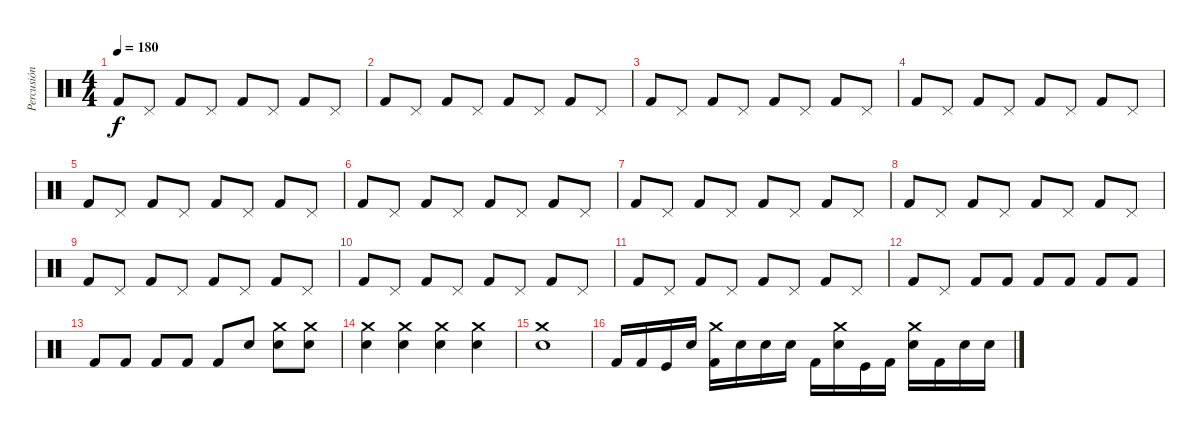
\track ("Percusión" "Percusión") {instrument percussion}
\staff {score}
\articulation defaults
\ts (4 4)
\tempo 180
\clef neutral
\ks c "Kick (hit) 2".8{dy f} "Pedal Hi-Hat (hit)".8 "Kick (hit) 2".8 "Pedal Hi-Hat (hit)".8 "Kick (hit) 2".8 "Pedal Hi-Hat (hit)".8 "Kick (hit) 2".8 "Pedal Hi-Hat (hit)".8
|
"Kick (hit) 2".8 "Pedal Hi-Hat (hit)".8 "Kick (hit) 2".8 "Pedal Hi-Hat (hit)".8 "Kick (hit) 2".8 "Pedal Hi-Hat (hit)".8 "Kick (hit) 2".8 "Pedal Hi-Hat (hit)".8 |
"Kick (hit) 2".8 "Pedal Hi-Hat (hit)".8 "Kick (hit) 2".8 "Pedal Hi-Hat (hit)".8 "Kick (hit) 2".8 "Pedal Hi-Hat (hit)".8 "Kick (hit) 2".8 "Pedal Hi-Hat (hit)".8 |
"Kick (hit) 2".8 "Pedal Hi-Hat (hit)".8 "Kick (hit) 2".8 "Pedal Hi-Hat (hit)".8 "Kick (hit) 2".8 "Pedal Hi-Hat (hit)".8 "Kick (hit) 2".8 "Pedal Hi-Hat (hit)".8 |
"Kick (hit) 2".8 "Pedal Hi-Hat (hit)".8 "Kick (hit) 2".8 "Pedal Hi-Hat (hit)".8 "Kick (hit) 2".8 "Pedal Hi-Hat (hit)".8 "Kick (hit) 2".8 "Pedal Hi-Hat (hit)".8 |
"Kick (hit) 2".8 "Pedal Hi-Hat (hit)".8 "Kick (hit) 2".8 "Pedal Hi-Hat (hit)".8 "Kick (hit) 2".8 "Pedal Hi-Hat (hit)".8 "Kick (hit) 2".8 "Pedal Hi-Hat (hit)".8 |
"Kick (hit) 2".8 "Pedal Hi-Hat (hit)".8 "Kick (hit) 2".8 "Pedal Hi-Hat (hit)".8 "Kick (hit) 2".8 "Pedal Hi-Hat (hit)".8 "Kick (hit) 2".8 "Pedal Hi-Hat (hit)".8 |
"Kick (hit) 2".8 "Pedal Hi-Hat (hit)".8 "Kick (hit) 2".8 "Pedal Hi-Hat (hit)".8 "Kick (hit) 2".8 "Pedal Hi-Hat (hit)".8 "Kick (hit) 2".8 "Pedal Hi-Hat (hit)".8 |
"Kick (hit) 2".8 "Pedal Hi-Hat (hit)".8 "Kick (hit) 2".8 "Pedal Hi-Hat (hit)".8 "Kick (hit) 2".8 "Pedal Hi-Hat (hit)".8 "Kick (hit) 2".8 "Pedal Hi-Hat (hit)".8 |
"Kick (hit) 2".8 "Pedal Hi-Hat (hit)".8 "Kick (hit) 2".8 "Pedal Hi-Hat (hit)".8 "Kick (hit) 2".8 "Pedal Hi-Hat (hit)".8 "Kick (hit) 2".8 "Pedal Hi-Hat (hit)".8 |
"Kick (hit) 2".8 "Pedal Hi-Hat (hit)".8 "Kick (hit) 2".8 "Pedal Hi-Hat (hit)".8 "Kick (hit) 2".8 "Pedal Hi-Hat (hit)".8 "Kick (hit) 2".8 "Pedal Hi-Hat (hit)".8 |
"Kick (hit) 2".8 "Pedal Hi-Hat (hit)".8 "Kick (hit) 2".8 "Kick (hit) 2".8 "Kick (hit) 2".8 "Kick (hit) 2".8 "Kick (hit) 2".8 "Kick (hit) 2".8 |
"Kick (hit) 2".8 "Kick (hit) 2".8 "Kick (hit) 2".8 "Kick (hit) 2".8 "Kick (hit) 2".8 "Snare (hit) 2".8 ("Snare (hit) 2" "Crash medium (hit)").8 ("Snare (hit) 2" "Crash medium (hit)").8 |
("Snare (hit) 2" "Crash medium (hit)").4 ("Snare (hit) 2" "Crash medium (hit)").4 ("Snare (hit) 2" "Crash medium (hit)").4 ("Snare (hit) 2" "Crash medium (hit)").4 |
("Crash medium (hit)" "Snare (hit) 2").1 |
"Kick (hit) 2".16 "Kick (hit) 2".16 "Kick (hit)".16 "Snare (hit) 2".16 ("Kick (hit) 2" "Crash medium (hit)").16 "Snare (hit) 2".16 "Snare (hit) 2".16 "Snare (hit) 2".16 "Kick (hit) 2".16 ("Snare (hit) 2" "Crash medium (hit)").16 "Kick (hit)".16 "Kick (hit) 2".16 ("Snare (hit) 2" "Crash medium (hit)").16 "Kick (hit) 2".16 "Snare (hit) 2".16 "Snare (hit) 2".16
